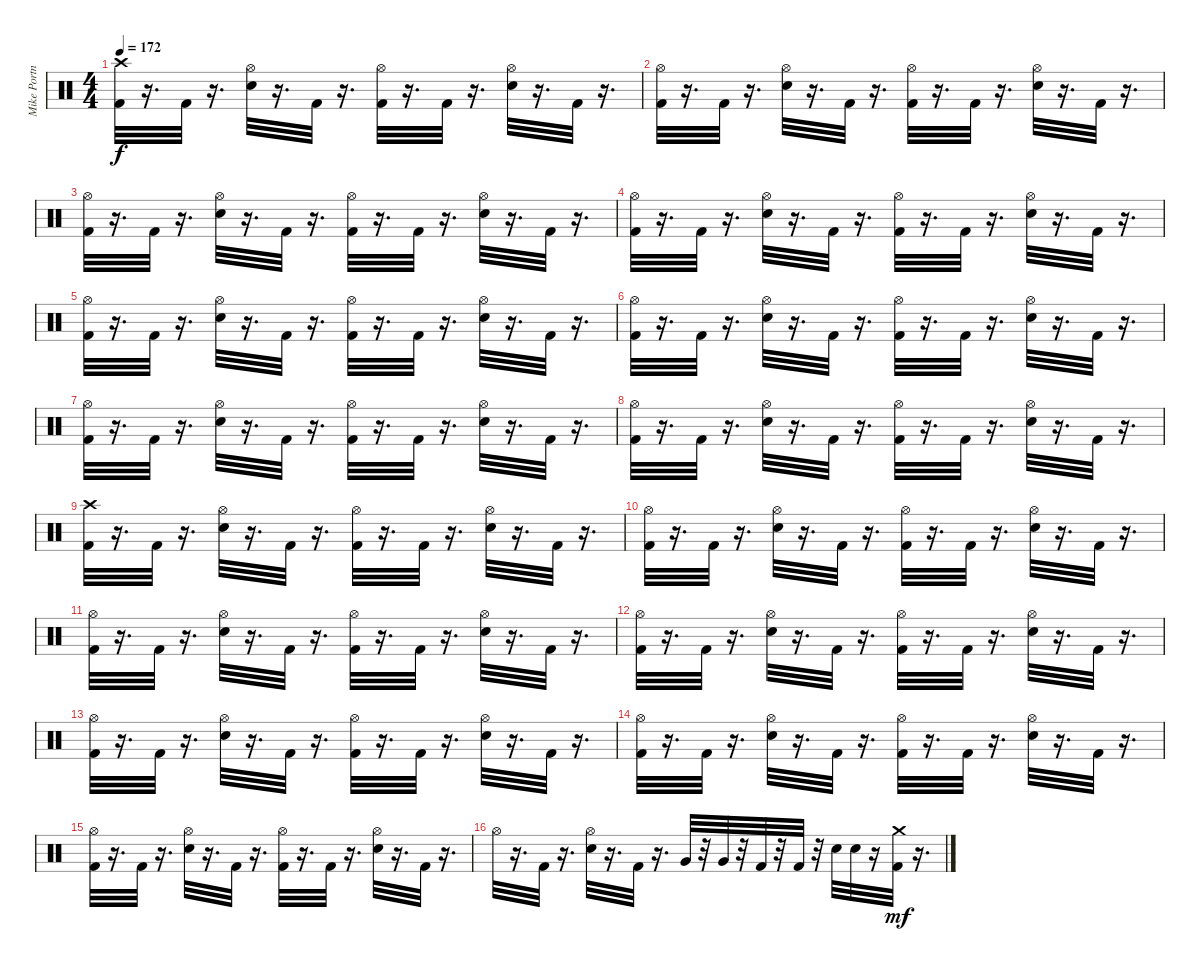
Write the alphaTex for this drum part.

\track ("Mike Portnoy" "Mike Portn") {instrument percussion}
\staff {score}
\articulation defaults
\ts (4 4)
\tempo 172
\clef neutral
\ks c
("Crash high (hit)" "Kick (hit) 2").32{dy f} r.16{d} "Kick (hit) 2".32 r.16{d} ("Hi-Hat (open)" "Snare (hit) 2").32 r.16{d} "Kick (hit) 2".32 r.16{d} ("Hi-Hat (open)" "Kick (hit) 2").32 r.16{d} "Kick (hit) 2".32 r.16{d} ("Hi-Hat (open)" "Snare (hit) 2").32 r.16{d} "Kick (hit) 2".32 r.16{d} |
("Hi-Hat (open)" "Kick (hit) 2").32 r.16{d} "Kick (hit) 2".32 r.16{d} ("Snare (hit) 2" "Hi-Hat (open)").32 r.16{d} "Kick (hit) 2".32 r.16{d} ("Kick (hit) 2" "Hi-Hat (open)").32 r.16{d} "Kick (hit) 2".32 r.16{d} ("Snare (hit) 2" "Hi-Hat (open)").32 r.16{d} "Kick (hit) 2".32 r.16{d} |
("Hi-Hat (open)" "Kick (hit) 2").32 r.16{d} "Kick (hit) 2".32 r.16{d} ("Snare (hit) 2" "Hi-Hat (open)").32 r.16{d} "Kick (hit) 2".32 r.16{d} ("Kick (hit) 2" "Hi-Hat (open)").32 r.16{d} "Kick (hit) 2".32 r.16{d} ("Snare (hit) 2" "Hi-Hat (open)").32 r.16{d} "Kick (hit) 2".32 r.16{d} |
("Hi-Hat (open)" "Kick (hit) 2").32 r.16{d} "Kick (hit) 2".32 r.16{d} ("Snare (hit) 2" "Hi-Hat (open)").32 r.16{d} "Kick (hit) 2".32 r.16{d} ("Kick (hit) 2" "Hi-Hat (open)").32 r.16{d} "Kick (hit) 2".32 r.16{d} ("Snare (hit) 2" "Hi-Hat (open)").32 r.16{d} "Kick (hit) 2".32 r.16{d} |
("Hi-Hat (open)" "Kick (hit) 2").32 r.16{d} "Kick (hit) 2".32 r.16{d} ("Snare (hit) 2" "Hi-Hat (open)").32 r.16{d} "Kick (hit) 2".32 r.16{d} ("Kick (hit) 2" "Hi-Hat (open)").32 r.16{d} "Kick (hit) 2".32 r.16{d} ("Snare (hit) 2" "Hi-Hat (open)").32 r.16{d} "Kick (hit) 2".32 r.16{d} |
("Hi-Hat (open)" "Kick (hit) 2").32 r.16{d} "Kick (hit) 2".32 r.16{d} ("Snare (hit) 2" "Hi-Hat (open)").32 r.16{d} "Kick (hit) 2".32 r.16{d} ("Kick (hit) 2" "Hi-Hat (open)").32 r.16{d} "Kick (hit) 2".32 r.16{d} ("Snare (hit) 2" "Hi-Hat (open)").32 r.16{d} "Kick (hit) 2".32 r.16{d} |
("Hi-Hat (open)" "Kick (hit) 2").32 r.16{d} "Kick (hit) 2".32 r.16{d} ("Snare (hit) 2" "Hi-Hat (open)").32 r.16{d} "Kick (hit) 2".32 r.16{d} ("Kick (hit) 2" "Hi-Hat (open)").32 r.16{d} "Kick (hit) 2".32 r.16{d} ("Snare (hit) 2" "Hi-Hat (open)").32 r.16{d} "Kick (hit) 2".32 r.16{d} |
("Hi-Hat (open)" "Kick (hit) 2").32 r.16{d} "Kick (hit) 2".32 r.16{d} ("Snare (hit) 2" "Hi-Hat (open)").32 r.16{d} "Kick (hit) 2".32 r.16{d} ("Kick (hit) 2" "Hi-Hat (open)").32 r.16{d} "Kick (hit) 2".32 r.16{d} ("Snare (hit) 2" "Hi-Hat (open)").32 r.16{d} "Kick (hit) 2".32 r.16{d} |
("Crash high (hit)" "Kick (hit) 2").32 r.16{d} "Kick (hit) 2".32 r.16{d} ("Snare (hit) 2" "Hi-Hat (open)").32 r.16{d} "Kick (hit) 2".32 r.16{d} ("Kick (hit) 2" "Hi-Hat (open)").32 r.16{d} "Kick (hit) 2".32 r.16{d} ("Snare (hit) 2" "Hi-Hat (open)").32 r.16{d} "Kick (hit) 2".32 r.16{d} |
("Hi-Hat (open)" "Kick (hit) 2").32 r.16{d} "Kick (hit) 2".32 r.16{d} ("Snare (hit) 2" "Hi-Hat (open)").32 r.16{d} "Kick (hit) 2".32 r.16{d} ("Kick (hit) 2" "Hi-Hat (open)").32 r.16{d} "Kick (hit) 2".32 r.16{d} ("Snare (hit) 2" "Hi-Hat (open)").32 r.16{d} "Kick (hit) 2".32 r.16{d} |
("Hi-Hat (open)" "Kick (hit) 2").32 r.16{d} "Kick (hit) 2".32 r.16{d} ("Snare (hit) 2" "Hi-Hat (open)").32 r.16{d} "Kick (hit) 2".32 r.16{d} ("Kick (hit) 2" "Hi-Hat (open)").32 r.16{d} "Kick (hit) 2".32 r.16{d} ("Snare (hit) 2" "Hi-Hat (open)").32 r.16{d} "Kick (hit) 2".32 r.16{d} |
("Hi-Hat (open)" "Kick (hit) 2").32 r.16{d} "Kick (hit) 2".32 r.16{d} ("Snare (hit) 2" "Hi-Hat (open)").32 r.16{d} "Kick (hit) 2".32 r.16{d} ("Kick (hit) 2" "Hi-Hat (open)").32 r.16{d} "Kick (hit) 2".32 r.16{d} ("Snare (hit) 2" "Hi-Hat (open)").32 r.16{d} "Kick (hit) 2".32 r.16{d} |
("Hi-Hat (open)" "Kick (hit) 2").32 r.16{d} "Kick (hit) 2".32 r.16{d} ("Snare (hit) 2" "Hi-Hat (open)").32 r.16{d} "Kick (hit) 2".32 r.16{d} ("Kick (hit) 2" "Hi-Hat (open)").32 r.16{d} "Kick (hit) 2".32 r.16{d} ("Snare (hit) 2" "Hi-Hat (open)").32 r.16{d} "Kick (hit) 2".32 r.16{d} |
("Hi-Hat (open)" "Kick (hit) 2").32 r.16{d} "Kick (hit) 2".32 r.16{d} ("Snare (hit) 2" "Hi-Hat (open)").32 r.16{d} "Kick (hit) 2".32 r.16{d} ("Kick (hit) 2" "Hi-Hat (open)").32 r.16{d} "Kick (hit) 2".32 r.16{d} ("Snare (hit) 2" "Hi-Hat (open)").32 r.16{d} "Kick (hit) 2".32 r.16{d} |
("Hi-Hat (open)" "Kick (hit) 2").32 r.16{d} "Kick (hit) 2".32 r.16{d} ("Snare (hit) 2" "Hi-Hat (open)").32 r.16{d} "Kick (hit) 2".32 r.16{d} ("Kick (hit) 2" "Hi-Hat (open)").32 r.16{d} "Kick (hit) 2".32 r.16{d} ("Snare (hit) 2" "Hi-Hat (open)").32 r.16{d} "Kick (hit) 2".32 r.16{d} |
"Hi-Hat (open)".32 r.16{d} "Kick (hit) 2".32 r.16{d} ("Snare (hit) 2" "Hi-Hat (open)").32 r.16{d} "Kick (hit) 2".32 r.16{d} "Very Low Tom (hit)".32 r.32 "Very Low Tom (hit)".32 r.32 "Kick (hit) 2".32 r.32 "Kick (hit) 2".32 r.32 "Snare (hit) 2".32 "Snare (hit) 2".32 r.16 ("Crash medium (hit)" "Kick (hit) 2").32{dy mf} r.16{d}
